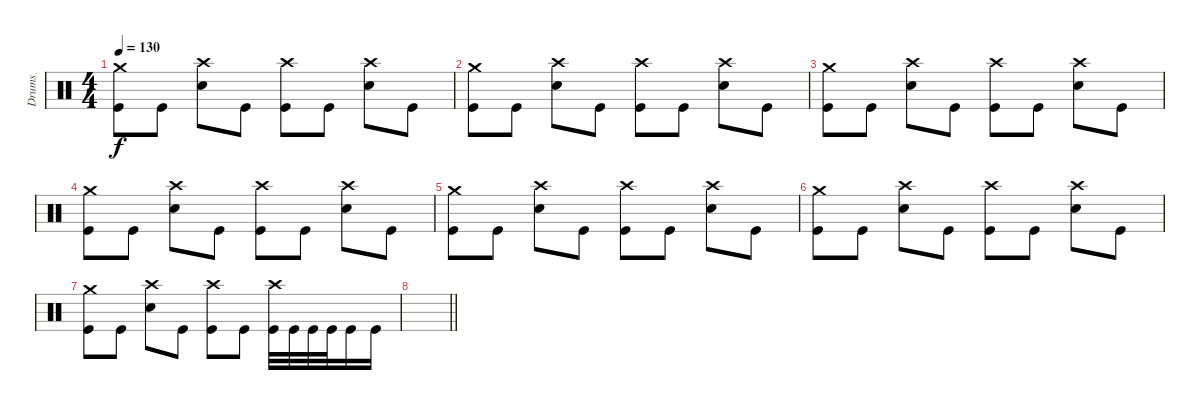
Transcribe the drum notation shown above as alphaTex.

\track ("Drums" "Drums") {instrument percussion}
\staff {score}
\articulation defaults
\ts (4 4)
\tempo 130
\clef neutral
\ks c
("Kick (hit)" "Crash medium (hit)").8{dy f} "Kick (hit)".8 ("Snare (hit) 2" "Crash high (hit)").8 "Kick (hit)".8 ("Kick (hit)" "Crash high (hit)").8 "Kick (hit)".8 ("Snare (hit) 2" "Crash high (hit)").8 "Kick (hit)".8 |
("Kick (hit)" "Crash medium (hit)").8 "Kick (hit)".8 ("Snare (hit) 2" "Crash high (hit)").8 "Kick (hit)".8 ("Kick (hit)" "Crash high (hit)").8 "Kick (hit)".8 ("Snare (hit) 2" "Crash high (hit)").8 "Kick (hit)".8 |
("Kick (hit)" "Crash medium (hit)").8 "Kick (hit)".8 ("Snare (hit) 2" "Crash high (hit)").8 "Kick (hit)".8 ("Kick (hit)" "Crash high (hit)").8 "Kick (hit)".8 ("Snare (hit) 2" "Crash high (hit)").8 "Kick (hit)".8 |
("Kick (hit)" "Crash medium (hit)").8 "Kick (hit)".8 ("Snare (hit) 2" "Crash high (hit)").8 "Kick (hit)".8 ("Kick (hit)" "Crash high (hit)").8 "Kick (hit)".8 ("Snare (hit) 2" "Crash high (hit)").8 "Kick (hit)".8 |
("Kick (hit)" "Crash medium (hit)").8 "Kick (hit)".8 ("Snare (hit) 2" "Crash high (hit)").8 "Kick (hit)".8 ("Kick (hit)" "Crash high (hit)").8 "Kick (hit)".8 ("Snare (hit) 2" "Crash high (hit)").8 "Kick (hit)".8 |
("Kick (hit)" "Crash medium (hit)").8 "Kick (hit)".8 ("Snare (hit) 2" "Crash high (hit)").8 "Kick (hit)".8 ("Kick (hit)" "Crash high (hit)").8 "Kick (hit)".8 ("Snare (hit) 2" "Crash high (hit)").8 "Kick (hit)".8 |
("Kick (hit)" "Crash medium (hit)").8 "Kick (hit)".8 ("Snare (hit) 2" "Crash high (hit)").8 "Kick (hit)".8 ("Kick (hit)" "Crash high (hit)").8 "Kick (hit)".8 ("Kick (hit)" "Crash high (hit)").32 "Kick (hit)".32 "Kick (hit)".32 "Kick (hit)".32 "Kick (hit)".16 "Kick (hit)".16 |
\barLineRight lightlight
